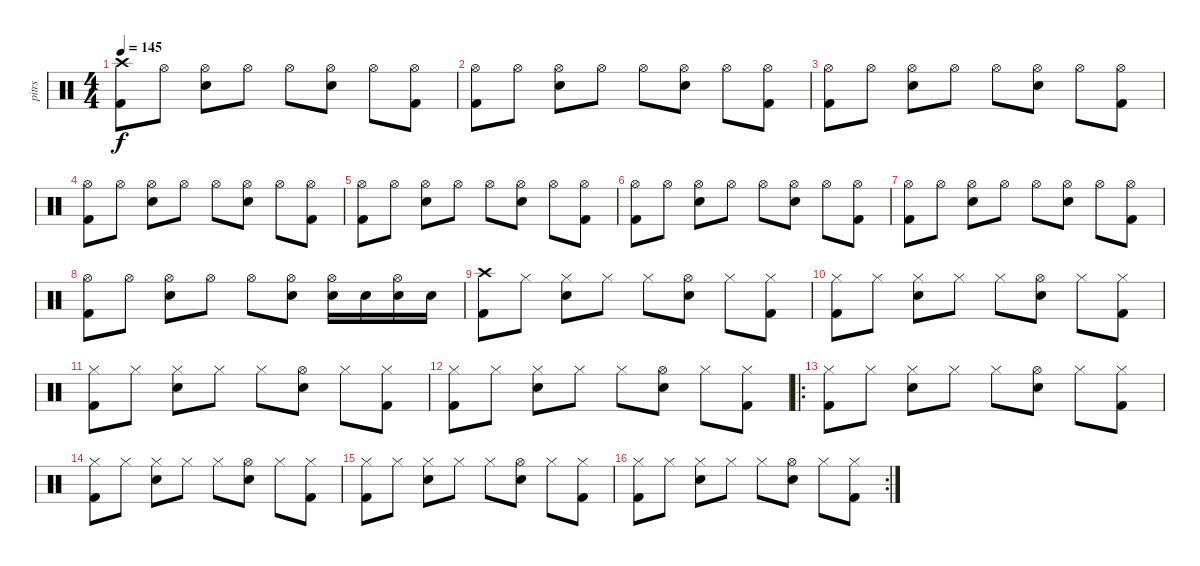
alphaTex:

\track ("pitrs" "pitrs") {instrument percussion}
\staff {score}
\articulation defaults
\ts (4 4)
\tempo 145
\clef neutral
\ks c
("Crash high (hit)" "Kick (hit) 2").8{dy f} "Hi-Hat (open)".8 ("Hi-Hat (open)" "Snare (hit) 2").8 "Hi-Hat (open)".8 "Hi-Hat (open)".8 ("Hi-Hat (open)" "Snare (hit) 2").8 "Hi-Hat (open)".8 ("Hi-Hat (open)" "Kick (hit) 2").8 |
("Hi-Hat (open)" "Kick (hit) 2").8 "Hi-Hat (open)".8 ("Hi-Hat (open)" "Snare (hit) 2").8 "Hi-Hat (open)".8 "Hi-Hat (open)".8 ("Hi-Hat (open)" "Snare (hit) 2").8 "Hi-Hat (open)".8 ("Hi-Hat (open)" "Kick (hit) 2").8 |
("Hi-Hat (open)" "Kick (hit) 2").8 "Hi-Hat (open)".8 ("Hi-Hat (open)" "Snare (hit) 2").8 "Hi-Hat (open)".8 "Hi-Hat (open)".8 ("Hi-Hat (open)" "Snare (hit) 2").8 "Hi-Hat (open)".8 ("Hi-Hat (open)" "Kick (hit) 2").8 |
("Hi-Hat (open)" "Kick (hit) 2").8 "Hi-Hat (open)".8 ("Hi-Hat (open)" "Snare (hit) 2").8 "Hi-Hat (open)".8 "Hi-Hat (open)".8 ("Hi-Hat (open)" "Snare (hit) 2").8 "Hi-Hat (open)".8 ("Hi-Hat (open)" "Kick (hit) 2").8 |
("Hi-Hat (open)" "Kick (hit) 2").8 "Hi-Hat (open)".8 ("Hi-Hat (open)" "Snare (hit) 2").8 "Hi-Hat (open)".8 "Hi-Hat (open)".8 ("Hi-Hat (open)" "Snare (hit) 2").8 "Hi-Hat (open)".8 ("Hi-Hat (open)" "Kick (hit) 2").8 |
("Hi-Hat (open)" "Kick (hit) 2").8 "Hi-Hat (open)".8 ("Hi-Hat (open)" "Snare (hit) 2").8 "Hi-Hat (open)".8 "Hi-Hat (open)".8 ("Hi-Hat (open)" "Snare (hit) 2").8 "Hi-Hat (open)".8 ("Hi-Hat (open)" "Kick (hit) 2").8 |
("Hi-Hat (open)" "Kick (hit) 2").8 "Hi-Hat (open)".8 ("Hi-Hat (open)" "Snare (hit) 2").8 "Hi-Hat (open)".8 "Hi-Hat (open)".8 ("Hi-Hat (open)" "Snare (hit) 2").8 "Hi-Hat (open)".8 ("Hi-Hat (open)" "Kick (hit) 2").8 |
("Hi-Hat (open)" "Kick (hit) 2").8 "Hi-Hat (open)".8 ("Hi-Hat (open)" "Snare (hit) 2").8 "Hi-Hat (open)".8 "Hi-Hat (open)".8 ("Hi-Hat (open)" "Snare (hit) 2").8 ("Hi-Hat (open)" "Snare (hit) 2").16 "Snare (hit) 2".16 ("Hi-Hat (open)" "Snare (hit) 2").16 "Snare (hit) 2".16 |
("Crash high (hit)" "Kick (hit) 2").8 "Hi-Hat (closed)".8 ("Hi-Hat (closed)" "Snare (hit) 2").8 "Hi-Hat (closed)".8 "Hi-Hat (closed)".8 ("Hi-Hat (open)" "Snare (hit) 2").8 "Hi-Hat (closed)".8 ("Hi-Hat (closed)" "Kick (hit) 2").8 |
("Hi-Hat (closed)" "Kick (hit) 2").8 "Hi-Hat (closed)".8 ("Hi-Hat (closed)" "Snare (hit) 2").8 "Hi-Hat (closed)".8 "Hi-Hat (closed)".8 ("Hi-Hat (open)" "Snare (hit) 2").8 "Hi-Hat (closed)".8 ("Hi-Hat (closed)" "Kick (hit) 2").8 |
("Hi-Hat (closed)" "Kick (hit) 2").8 "Hi-Hat (closed)".8 ("Hi-Hat (closed)" "Snare (hit) 2").8 "Hi-Hat (closed)".8 "Hi-Hat (closed)".8 ("Hi-Hat (open)" "Snare (hit) 2").8 "Hi-Hat (closed)".8 ("Hi-Hat (closed)" "Kick (hit) 2").8 |
("Hi-Hat (closed)" "Kick (hit) 2").8 "Hi-Hat (closed)".8 ("Hi-Hat (closed)" "Snare (hit) 2").8 "Hi-Hat (closed)".8 "Hi-Hat (closed)".8 ("Hi-Hat (open)" "Snare (hit) 2").8 "Hi-Hat (closed)".8 ("Hi-Hat (closed)" "Kick (hit) 2").8 |
\ro
("Hi-Hat (closed)" "Kick (hit) 2").8 "Hi-Hat (closed)".8 ("Hi-Hat (closed)" "Snare (hit) 2").8 "Hi-Hat (closed)".8 "Hi-Hat (closed)".8 ("Hi-Hat (open)" "Snare (hit) 2").8 "Hi-Hat (closed)".8 ("Hi-Hat (closed)" "Kick (hit) 2").8 |
("Hi-Hat (closed)" "Kick (hit) 2").8 "Hi-Hat (closed)".8 ("Hi-Hat (closed)" "Snare (hit) 2").8 "Hi-Hat (closed)".8 "Hi-Hat (closed)".8 ("Hi-Hat (open)" "Snare (hit) 2").8 "Hi-Hat (closed)".8 ("Hi-Hat (closed)" "Kick (hit) 2").8 |
("Hi-Hat (closed)" "Kick (hit) 2").8 "Hi-Hat (closed)".8 ("Hi-Hat (closed)" "Snare (hit) 2").8 "Hi-Hat (closed)".8 "Hi-Hat (closed)".8 ("Hi-Hat (open)" "Snare (hit) 2").8 "Hi-Hat (closed)".8 ("Hi-Hat (closed)" "Kick (hit) 2").8 |
\rc 2
("Hi-Hat (closed)" "Kick (hit) 2").8 "Hi-Hat (closed)".8 ("Hi-Hat (closed)" "Snare (hit) 2").8 "Hi-Hat (closed)".8 "Hi-Hat (closed)".8 ("Hi-Hat (open)" "Snare (hit) 2").8 "Hi-Hat (closed)".8 ("Hi-Hat (closed)" "Kick (hit) 2").8
